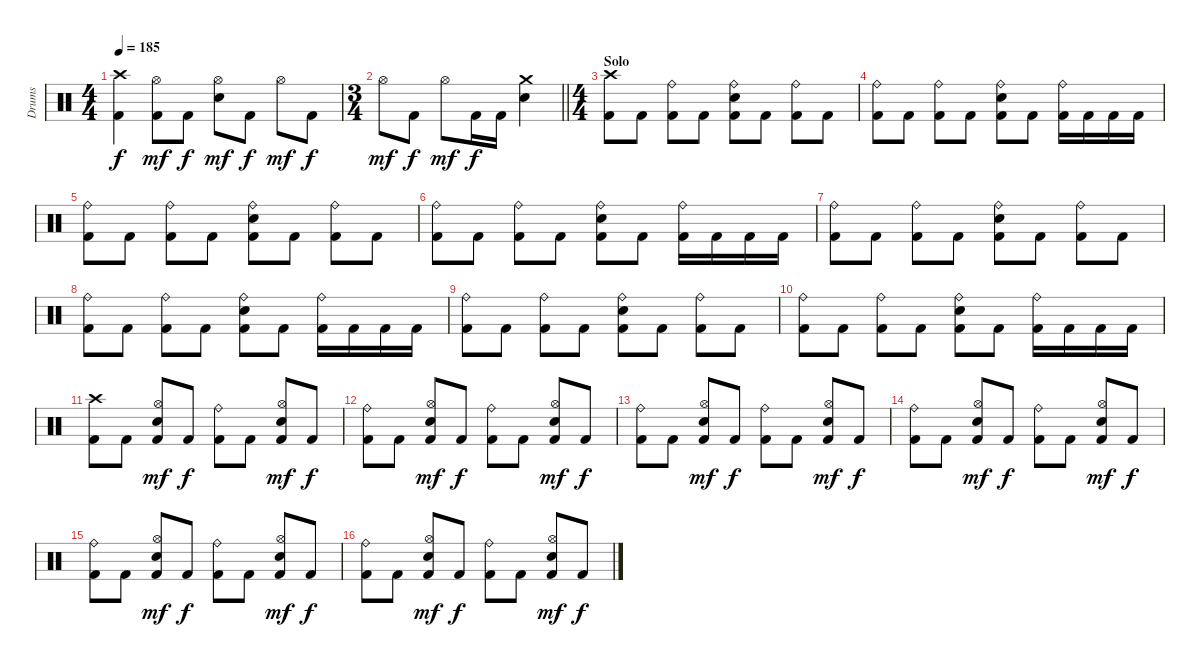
\track ("Drums" "Drums") {instrument percussion}
\staff {score}
\articulation defaults
\ts (4 4)
\tempo 185
\clef neutral
\ks c
("Kick (hit) 2" "Crash high (hit)").4{dy f} ("Kick (hit) 2" "Hi-Hat (open)").8{dy mf} "Kick (hit) 2".8{dy f} ("Hi-Hat (open)" "Electric Snare (hit)").8{dy mf} "Kick (hit) 2".8{dy f} "Hi-Hat (open)".8{dy mf} "Kick (hit) 2".8{dy f} |
\ts (3 4)
\barLineRight lightlight "Hi-Hat (open)".8{dy mf} "Kick (hit) 2".8{dy f} "Hi-Hat (open)".8{dy mf} "Kick (hit) 2".16{dy f} "Kick (hit) 2".16
("Crash medium (hit)" "Electric Snare (hit)").4 |
\ts (4 4)
\section ("" "Solo")
("Kick (hit) 2" "Crash high (hit)").8 "Kick (hit) 2".8 ("Kick (hit) 2" "Ride (bell)").8 "Kick (hit) 2".8 ("Kick (hit) 2" "Ride (bell)" "Electric Snare (hit)").8 "Kick (hit) 2".8 ("Kick (hit) 2" "Ride (bell)").8 "Kick (hit) 2".8 |
("Kick (hit) 2" "Ride (bell)").8 "Kick (hit) 2".8 ("Kick (hit) 2" "Ride (bell)").8 "Kick (hit) 2".8 ("Kick (hit) 2" "Ride (bell)" "Electric Snare (hit)").8 "Kick (hit) 2".8 ("Kick (hit) 2" "Ride (bell)").16 "Kick (hit) 2".16 "Kick (hit) 2".16 "Kick (hit) 2".16 |
("Kick (hit) 2" "Ride (bell)").8 "Kick (hit) 2".8 ("Kick (hit) 2" "Ride (bell)").8 "Kick (hit) 2".8 ("Kick (hit) 2" "Ride (bell)" "Electric Snare (hit)").8 "Kick (hit) 2".8 ("Kick (hit) 2" "Ride (bell)").8 "Kick (hit) 2".8 |
("Kick (hit) 2" "Ride (bell)").8 "Kick (hit) 2".8 ("Kick (hit) 2" "Ride (bell)").8 "Kick (hit) 2".8 ("Kick (hit) 2" "Ride (bell)" "Electric Snare (hit)").8 "Kick (hit) 2".8 ("Kick (hit) 2" "Ride (bell)").16 "Kick (hit) 2".16 "Kick (hit) 2".16 "Kick (hit) 2".16 |
("Kick (hit) 2" "Ride (bell)").8 "Kick (hit) 2".8 ("Kick (hit) 2" "Ride (bell)").8 "Kick (hit) 2".8 ("Kick (hit) 2" "Ride (bell)" "Electric Snare (hit)").8 "Kick (hit) 2".8 ("Kick (hit) 2" "Ride (bell)").8 "Kick (hit) 2".8 |
("Kick (hit) 2" "Ride (bell)").8 "Kick (hit) 2".8 ("Kick (hit) 2" "Ride (bell)").8 "Kick (hit) 2".8 ("Kick (hit) 2" "Ride (bell)" "Electric Snare (hit)").8 "Kick (hit) 2".8 ("Kick (hit) 2" "Ride (bell)").16 "Kick (hit) 2".16 "Kick (hit) 2".16 "Kick (hit) 2".16 |
("Kick (hit) 2" "Ride (bell)").8 "Kick (hit) 2".8 ("Kick (hit) 2" "Ride (bell)").8 "Kick (hit) 2".8 ("Kick (hit) 2" "Ride (bell)" "Electric Snare (hit)").8 "Kick (hit) 2".8 ("Kick (hit) 2" "Ride (bell)").8 "Kick (hit) 2".8 |
("Kick (hit) 2" "Ride (bell)").8 "Kick (hit) 2".8 ("Kick (hit) 2" "Ride (bell)").8 "Kick (hit) 2".8 ("Kick (hit) 2" "Ride (bell)" "Electric Snare (hit)").8 "Kick (hit) 2".8 ("Kick (hit) 2" "Ride (bell)").16 "Kick (hit) 2".16 "Kick (hit) 2".16 "Kick (hit) 2".16 |
("Kick (hit) 2" "Crash high (hit)").8 "Kick (hit) 2".8 ("Kick (hit) 2" "Hi-Hat (open)" "Electric Snare (hit)").8{dy mf} "Kick (hit) 2".8{dy f} ("Kick (hit) 2" "Ride (bell)").8 "Kick (hit) 2".8 ("Kick (hit) 2" "Hi-Hat (open)" "Electric Snare (hit)").8{dy mf} "Kick (hit) 2".8{dy f} |
("Kick (hit) 2" "Ride (bell)").8 "Kick (hit) 2".8 ("Kick (hit) 2" "Hi-Hat (open)" "Electric Snare (hit)").8{dy mf} "Kick (hit) 2".8{dy f} ("Kick (hit) 2" "Ride (bell)").8 "Kick (hit) 2".8 ("Kick (hit) 2" "Hi-Hat (open)" "Electric Snare (hit)").8{dy mf} "Kick (hit) 2".8{dy f} |
("Kick (hit) 2" "Ride (bell)").8 "Kick (hit) 2".8 ("Kick (hit) 2" "Hi-Hat (open)" "Electric Snare (hit)").8{dy mf} "Kick (hit) 2".8{dy f} ("Kick (hit) 2" "Ride (bell)").8 "Kick (hit) 2".8 ("Kick (hit) 2" "Hi-Hat (open)" "Electric Snare (hit)").8{dy mf} "Kick (hit) 2".8{dy f} |
("Kick (hit) 2" "Ride (bell)").8 "Kick (hit) 2".8 ("Kick (hit) 2" "Hi-Hat (open)" "Electric Snare (hit)").8{dy mf} "Kick (hit) 2".8{dy f} ("Kick (hit) 2" "Ride (bell)").8 "Kick (hit) 2".8 ("Kick (hit) 2" "Hi-Hat (open)" "Electric Snare (hit)").8{dy mf} "Kick (hit) 2".8{dy f} |
("Kick (hit) 2" "Ride (bell)").8 "Kick (hit) 2".8 ("Kick (hit) 2" "Hi-Hat (open)" "Electric Snare (hit)").8{dy mf} "Kick (hit) 2".8{dy f} ("Kick (hit) 2" "Ride (bell)").8 "Kick (hit) 2".8 ("Kick (hit) 2" "Hi-Hat (open)" "Electric Snare (hit)").8{dy mf} "Kick (hit) 2".8{dy f} |
("Kick (hit) 2" "Ride (bell)").8 "Kick (hit) 2".8 ("Kick (hit) 2" "Hi-Hat (open)" "Electric Snare (hit)").8{dy mf} "Kick (hit) 2".8{dy f} ("Kick (hit) 2" "Ride (bell)").8 "Kick (hit) 2".8 ("Kick (hit) 2" "Hi-Hat (open)" "Electric Snare (hit)").8{dy mf} "Kick (hit) 2".8{dy f}
